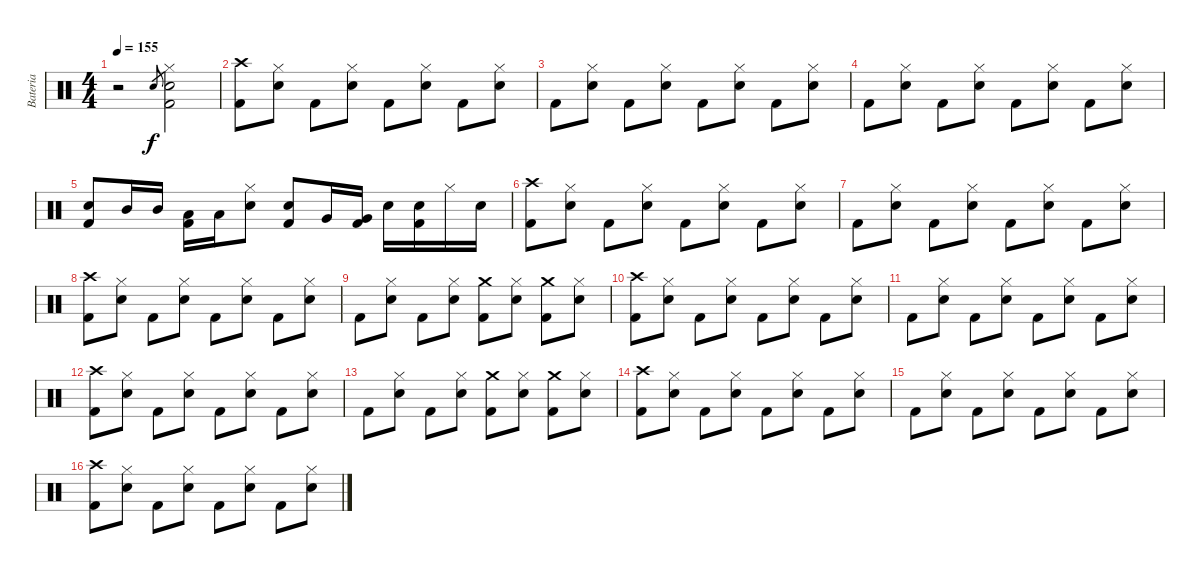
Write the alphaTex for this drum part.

\track ("Bateria" "Bateria") {instrument percussion}
\staff {score}
\articulation defaults
\ts (4 4)
\tempo 155
\clef neutral
\ks c
r.2{dy f} "Electric Snare (hit)".8{gr} ("Kick (hit) 2" "Electric Snare (hit)" "Hi-Hat (closed)").2 |
("Kick (hit) 2" "Crash high (hit)").8 ("Electric Snare (hit)" "Hi-Hat (closed)").8 "Kick (hit) 2".8 ("Electric Snare (hit)" "Hi-Hat (closed)").8 "Kick (hit) 2".8 ("Electric Snare (hit)" "Hi-Hat (closed)").8 "Kick (hit) 2".8 ("Electric Snare (hit)" "Hi-Hat (closed)").8 |
"Kick (hit) 2".8 ("Electric Snare (hit)" "Hi-Hat (closed)").8 "Kick (hit) 2".8 ("Electric Snare (hit)" "Hi-Hat (closed)").8 "Kick (hit) 2".8 ("Electric Snare (hit)" "Hi-Hat (closed)").8 "Kick (hit) 2".8 ("Electric Snare (hit)" "Hi-Hat (closed)").8 |
"Kick (hit) 2".8 ("Electric Snare (hit)" "Hi-Hat (closed)").8 "Kick (hit) 2".8 ("Electric Snare (hit)" "Hi-Hat (closed)").8 "Kick (hit) 2".8 ("Electric Snare (hit)" "Hi-Hat (closed)").8 "Kick (hit) 2".8 ("Electric Snare (hit)" "Hi-Hat (closed)").8 |
("Kick (hit) 2" "Electric Snare (hit)").8 "Mid Tom (hit)".16 "Mid Tom (hit)".16 ("Kick (hit) 2" "Low Tom (hit)").16 "Low Tom (hit)".16 ("Electric Snare (hit)" "Hi-Hat (closed)").8 ("Kick (hit) 2" "Electric Snare (hit)").8 "Very Low Tom (hit)".16 ("Kick (hit) 2" "Very Low Tom (hit)").16 "Electric Snare (hit)".16 ("Kick (hit) 2" "Electric Snare (hit)").16 "Hi-Hat (closed)".16 "Electric Snare (hit)".16 |
("Kick (hit) 2" "Crash high (hit)").8 ("Electric Snare (hit)" "Hi-Hat (closed)").8 "Kick (hit) 2".8 ("Electric Snare (hit)" "Hi-Hat (closed)").8 "Kick (hit) 2".8 ("Electric Snare (hit)" "Hi-Hat (closed)").8 "Kick (hit) 2".8 ("Electric Snare (hit)" "Hi-Hat (closed)").8 |
"Kick (hit) 2".8 ("Electric Snare (hit)" "Hi-Hat (closed)").8 "Kick (hit) 2".8 ("Electric Snare (hit)" "Hi-Hat (closed)").8 "Kick (hit) 2".8 ("Electric Snare (hit)" "Hi-Hat (closed)").8 "Kick (hit) 2".8 ("Electric Snare (hit)" "Hi-Hat (closed)").8 |
("Kick (hit) 2" "Crash high (hit)").8 ("Electric Snare (hit)" "Hi-Hat (closed)").8 "Kick (hit) 2".8 ("Electric Snare (hit)" "Hi-Hat (closed)").8 "Kick (hit) 2".8 ("Electric Snare (hit)" "Hi-Hat (closed)").8 "Kick (hit) 2".8 ("Electric Snare (hit)" "Hi-Hat (closed)").8 |
"Kick (hit) 2".8 ("Electric Snare (hit)" "Hi-Hat (closed)").8 "Kick (hit) 2".8 ("Electric Snare (hit)" "Hi-Hat (closed)").8 ("Kick (hit) 2" "Crash medium (hit)").8 ("Electric Snare (hit)" "Hi-Hat (closed)").8 ("Kick (hit) 2" "Crash medium (hit)").8 ("Electric Snare (hit)" "Hi-Hat (closed)").8 |
("Kick (hit) 2" "Crash high (hit)").8 ("Electric Snare (hit)" "Hi-Hat (closed)").8 "Kick (hit) 2".8 ("Electric Snare (hit)" "Hi-Hat (closed)").8 "Kick (hit) 2".8 ("Electric Snare (hit)" "Hi-Hat (closed)").8 "Kick (hit) 2".8 ("Electric Snare (hit)" "Hi-Hat (closed)").8 |
"Kick (hit) 2".8 ("Electric Snare (hit)" "Hi-Hat (closed)").8 "Kick (hit) 2".8 ("Electric Snare (hit)" "Hi-Hat (closed)").8 "Kick (hit) 2".8 ("Electric Snare (hit)" "Hi-Hat (closed)").8 "Kick (hit) 2".8 ("Electric Snare (hit)" "Hi-Hat (closed)").8 |
("Kick (hit) 2" "Crash high (hit)").8 ("Electric Snare (hit)" "Hi-Hat (closed)").8 "Kick (hit) 2".8 ("Electric Snare (hit)" "Hi-Hat (closed)").8 "Kick (hit) 2".8 ("Electric Snare (hit)" "Hi-Hat (closed)").8 "Kick (hit) 2".8 ("Electric Snare (hit)" "Hi-Hat (closed)").8 |
"Kick (hit) 2".8 ("Electric Snare (hit)" "Hi-Hat (closed)").8 "Kick (hit) 2".8 ("Electric Snare (hit)" "Hi-Hat (closed)").8 ("Kick (hit) 2" "Crash medium (hit)").8 ("Electric Snare (hit)" "Hi-Hat (closed)").8 ("Kick (hit) 2" "Crash medium (hit)").8 ("Electric Snare (hit)" "Hi-Hat (closed)").8 |
("Kick (hit) 2" "Crash high (hit)").8 ("Electric Snare (hit)" "Hi-Hat (closed)").8 "Kick (hit) 2".8 ("Electric Snare (hit)" "Hi-Hat (closed)").8 "Kick (hit) 2".8 ("Electric Snare (hit)" "Hi-Hat (closed)").8 "Kick (hit) 2".8 ("Electric Snare (hit)" "Hi-Hat (closed)").8 |
"Kick (hit) 2".8 ("Electric Snare (hit)" "Hi-Hat (closed)").8 "Kick (hit) 2".8 ("Electric Snare (hit)" "Hi-Hat (closed)").8 "Kick (hit) 2".8 ("Electric Snare (hit)" "Hi-Hat (closed)").8 "Kick (hit) 2".8 ("Electric Snare (hit)" "Hi-Hat (closed)").8 |
("Kick (hit) 2" "Crash high (hit)").8 ("Electric Snare (hit)" "Hi-Hat (closed)").8 "Kick (hit) 2".8 ("Electric Snare (hit)" "Hi-Hat (closed)").8 "Kick (hit) 2".8 ("Electric Snare (hit)" "Hi-Hat (closed)").8 "Kick (hit) 2".8 ("Electric Snare (hit)" "Hi-Hat (closed)").8
